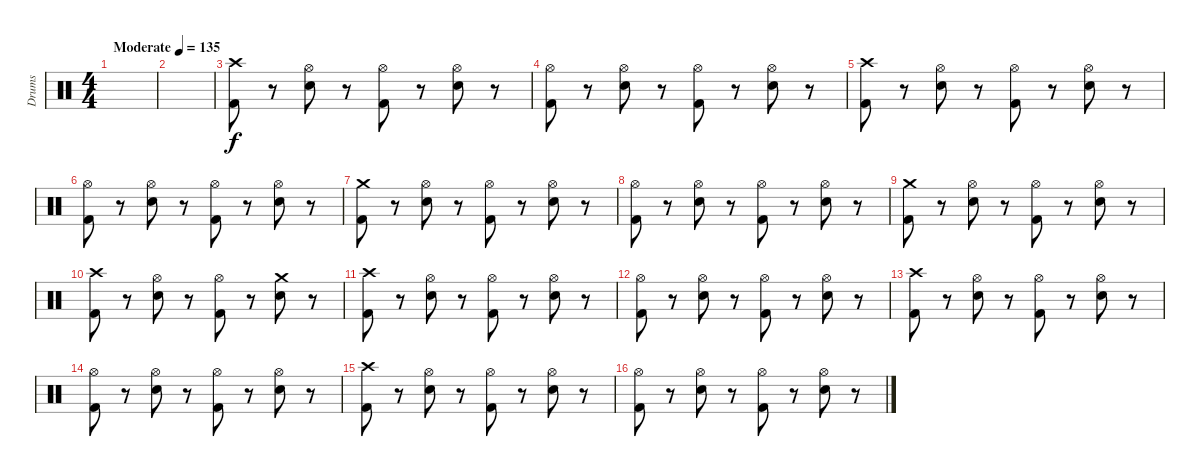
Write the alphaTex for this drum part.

\track ("Drums" "Drums") {instrument percussion}
\staff {score}
\articulation defaults
\ts (4 4)
\tempo (135 "Moderate")
\clef neutral
\ks c
|
|
("Crash high (hit)" "Kick (hit) 2").8 r.8 ("Hi-Hat (open)" "Electric Snare (hit)").8 r.8 ("Hi-Hat (open)" "Kick (hit) 2").8 r.8 ("Hi-Hat (open)" "Electric Snare (hit)").8 r.8 |
("Hi-Hat (open)" "Kick (hit) 2").8 r.8 ("Hi-Hat (open)" "Electric Snare (hit)").8 r.8 ("Hi-Hat (open)" "Kick (hit) 2").8 r.8 ("Hi-Hat (open)" "Electric Snare (hit)").8 r.8 |
("Crash high (hit)" "Kick (hit) 2").8 r.8 ("Hi-Hat (open)" "Electric Snare (hit)").8 r.8 ("Hi-Hat (open)" "Kick (hit) 2").8 r.8 ("Hi-Hat (open)" "Electric Snare (hit)").8 r.8 |
("Hi-Hat (open)" "Kick (hit) 2").8 r.8 ("Hi-Hat (open)" "Electric Snare (hit)").8 r.8 ("Hi-Hat (open)" "Kick (hit) 2").8 r.8 ("Hi-Hat (open)" "Electric Snare (hit)").8 r.8 |
("Crash medium (hit)" "Kick (hit) 2").8 r.8 ("Hi-Hat (open)" "Electric Snare (hit)").8 r.8 ("Hi-Hat (open)" "Kick (hit) 2").8 r.8 ("Hi-Hat (open)" "Electric Snare (hit)").8 r.8 |
("Hi-Hat (open)" "Kick (hit) 2").8 r.8 ("Hi-Hat (open)" "Electric Snare (hit)").8 r.8 ("Hi-Hat (open)" "Kick (hit) 2").8 r.8 ("Hi-Hat (open)" "Electric Snare (hit)").8 r.8 |
("Crash medium (hit)" "Kick (hit) 2").8 r.8 ("Hi-Hat (open)" "Electric Snare (hit)").8 r.8 ("Hi-Hat (open)" "Kick (hit) 2").8 r.8 ("Hi-Hat (open)" "Electric Snare (hit)").8 r.8 |
("Crash high (hit)" "Kick (hit) 2").8 r.8 ("Hi-Hat (open)" "Electric Snare (hit)").8 r.8 ("Hi-Hat (open)" "Kick (hit) 2").8 r.8 ("Crash medium (hit)" "Electric Snare (hit)").8 r.8 |
("Crash high (hit)" "Kick (hit) 2").8 r.8 ("Hi-Hat (open)" "Electric Snare (hit)").8 r.8 ("Hi-Hat (open)" "Kick (hit) 2").8 r.8 ("Hi-Hat (open)" "Electric Snare (hit)").8 r.8 |
("Hi-Hat (open)" "Kick (hit) 2").8 r.8 ("Hi-Hat (open)" "Electric Snare (hit)").8 r.8 ("Hi-Hat (open)" "Kick (hit) 2").8 r.8 ("Hi-Hat (open)" "Electric Snare (hit)").8 r.8 |
("Crash high (hit)" "Kick (hit) 2").8 r.8 ("Hi-Hat (open)" "Electric Snare (hit)").8 r.8 ("Hi-Hat (open)" "Kick (hit) 2").8 r.8 ("Hi-Hat (open)" "Electric Snare (hit)").8 r.8 |
("Hi-Hat (open)" "Kick (hit) 2").8 r.8 ("Hi-Hat (open)" "Electric Snare (hit)").8 r.8 ("Hi-Hat (open)" "Kick (hit) 2").8 r.8 ("Hi-Hat (open)" "Electric Snare (hit)").8 r.8 |
("Crash high (hit)" "Kick (hit) 2").8 r.8 ("Hi-Hat (open)" "Electric Snare (hit)").8 r.8 ("Hi-Hat (open)" "Kick (hit) 2").8 r.8 ("Hi-Hat (open)" "Electric Snare (hit)").8 r.8 |
("Hi-Hat (open)" "Kick (hit) 2").8 r.8 ("Hi-Hat (open)" "Electric Snare (hit)").8 r.8 ("Hi-Hat (open)" "Kick (hit) 2").8 r.8 ("Hi-Hat (open)" "Electric Snare (hit)").8 r.8
